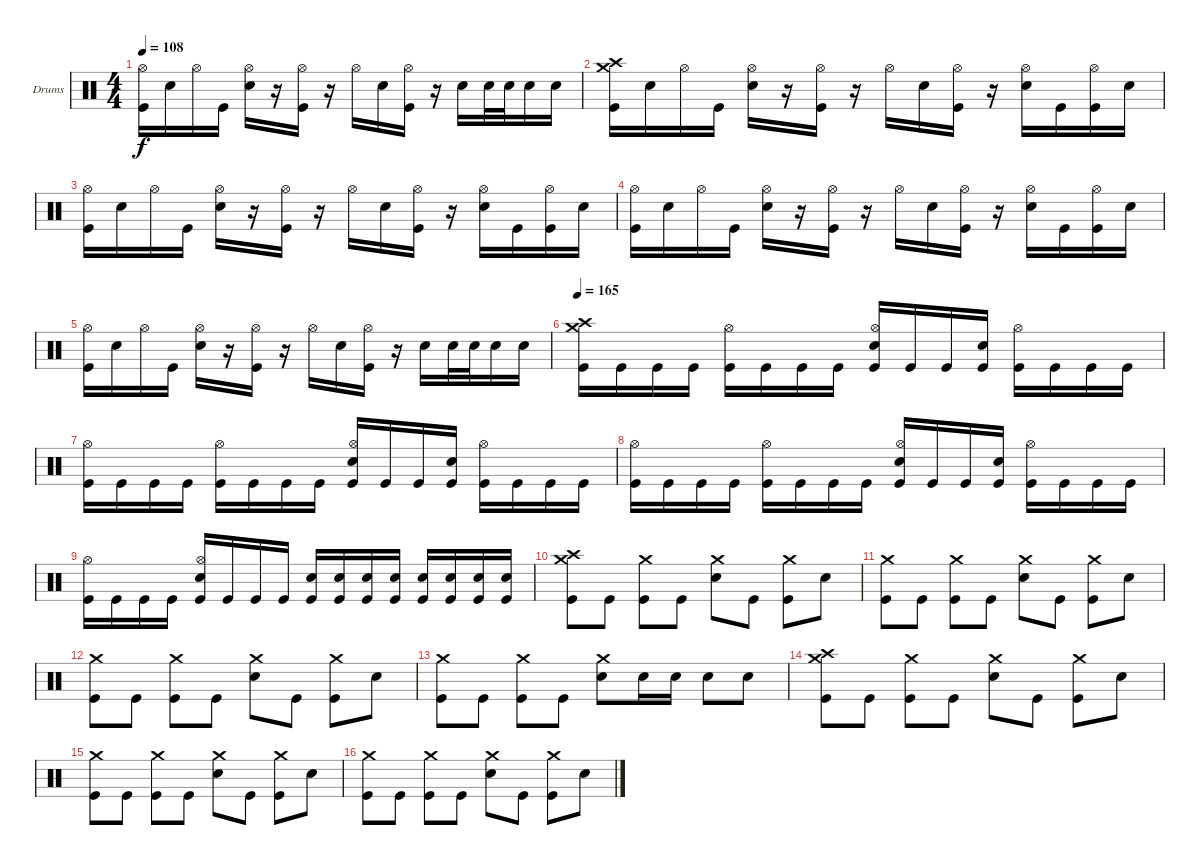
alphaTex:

\defaultSystemsLayout 4
\bracketExtendMode groupsimilarinstruments
\firstSystemTrackNameOrientation horizontal
\otherSystemsTrackNameOrientation horizontal
\track ("Drumkit" "Drums") {instrument percussion}
\staff {score}
\articulation defaults
\ts (4 4)
\tempo 108
\clef neutral
\ks c
("Kick (hit)" "Hi-Hat (open)").16{dy f} "Snare (hit) 2".16 "Hi-Hat (open)".16 "Kick (hit)".16 ("Hi-Hat (open)" "Snare (hit) 2").16 r.16 ("Hi-Hat (open)" "Kick (hit)").16 r.16 "Hi-Hat (open)".16 "Snare (hit) 2".16 ("Hi-Hat (open)" "Kick (hit)").16 r.16 "Snare (hit) 2".16 "Snare (hit) 2".32 "Snare (hit) 2".32 "Snare (hit) 2".16 "Snare (hit) 2".16 |
("Crash medium (hit)" "Crash high (hit)" "Kick (hit)").16 "Snare (hit) 2".16 "Hi-Hat (open)".16 "Kick (hit)".16 ("Hi-Hat (open)" "Snare (hit) 2").16 r.16 ("Hi-Hat (open)" "Kick (hit)").16 r.16 "Hi-Hat (open)".16 "Snare (hit) 2".16 ("Hi-Hat (open)" "Kick (hit)").16 r.16 ("Hi-Hat (open)" "Snare (hit) 2").16 "Kick (hit)".16 ("Hi-Hat (open)" "Kick (hit)").16 "Snare (hit) 2".16 |
("Kick (hit)" "Hi-Hat (open)").16 "Snare (hit) 2".16 "Hi-Hat (open)".16 "Kick (hit)".16 ("Hi-Hat (open)" "Snare (hit) 2").16 r.16 ("Hi-Hat (open)" "Kick (hit)").16 r.16 "Hi-Hat (open)".16 "Snare (hit) 2".16 ("Hi-Hat (open)" "Kick (hit)").16 r.16 ("Hi-Hat (open)" "Snare (hit) 2").16 "Kick (hit)".16 ("Hi-Hat (open)" "Kick (hit)").16 "Snare (hit) 2".16 |
("Kick (hit)" "Hi-Hat (open)").16 "Snare (hit) 2".16 "Hi-Hat (open)".16 "Kick (hit)".16 ("Hi-Hat (open)" "Snare (hit) 2").16 r.16 ("Hi-Hat (open)" "Kick (hit)").16 r.16 "Hi-Hat (open)".16 "Snare (hit) 2".16 ("Hi-Hat (open)" "Kick (hit)").16 r.16 ("Hi-Hat (open)" "Snare (hit) 2").16 "Kick (hit)".16 ("Hi-Hat (open)" "Kick (hit)").16 "Snare (hit) 2".16 |
("Kick (hit)" "Hi-Hat (open)").16 "Snare (hit) 2".16 "Hi-Hat (open)".16 "Kick (hit)".16 ("Hi-Hat (open)" "Snare (hit) 2").16 r.16 ("Hi-Hat (open)" "Kick (hit)").16 r.16 "Hi-Hat (open)".16 "Snare (hit) 2".16 ("Hi-Hat (open)" "Kick (hit)").16 r.16 "Snare (hit) 2".16 "Snare (hit) 2".32 "Snare (hit) 2".32 "Snare (hit) 2".16 "Snare (hit) 2".16 |
\tempo 165
("Kick (hit)" "Crash high (hit)" "Crash medium (hit)").16 "Kick (hit)".16 "Kick (hit)".16 "Kick (hit)".16 ("Kick (hit)" "Hi-Hat (open)").16 "Kick (hit)".16 "Kick (hit)".16 "Kick (hit)".16 ("Kick (hit)" "Hi-Hat (open)" "Snare (hit) 2").16 "Kick (hit)".16 "Kick (hit)".16 ("Kick (hit)" "Snare (hit) 2").16 ("Kick (hit)" "Hi-Hat (open)").16 "Kick (hit)".16 "Kick (hit)".16 "Kick (hit)".16 |
("Kick (hit)" "Hi-Hat (open)").16 "Kick (hit)".16 "Kick (hit)".16 "Kick (hit)".16 ("Kick (hit)" "Hi-Hat (open)").16 "Kick (hit)".16 "Kick (hit)".16 "Kick (hit)".16 ("Kick (hit)" "Hi-Hat (open)" "Snare (hit) 2").16 "Kick (hit)".16 "Kick (hit)".16 ("Kick (hit)" "Snare (hit) 2").16 ("Kick (hit)" "Hi-Hat (open)").16 "Kick (hit)".16 "Kick (hit)".16 "Kick (hit)".16 |
("Kick (hit)" "Hi-Hat (open)").16 "Kick (hit)".16 "Kick (hit)".16 "Kick (hit)".16 ("Kick (hit)" "Hi-Hat (open)").16 "Kick (hit)".16 "Kick (hit)".16 "Kick (hit)".16 ("Kick (hit)" "Hi-Hat (open)" "Snare (hit) 2").16 "Kick (hit)".16 "Kick (hit)".16 ("Kick (hit)" "Snare (hit) 2").16 ("Kick (hit)" "Hi-Hat (open)").16 "Kick (hit)".16 "Kick (hit)".16 "Kick (hit)".16 |
("Kick (hit)" "Hi-Hat (open)").16 "Kick (hit)".16 "Kick (hit)".16 "Kick (hit)".16 ("Kick (hit)" "Hi-Hat (open)" "Snare (hit) 2").16 "Kick (hit)".16 "Kick (hit)".16 "Kick (hit)".16 ("Kick (hit)" "Snare (hit) 2").16 ("Kick (hit)" "Snare (hit) 2").16 ("Kick (hit)" "Snare (hit) 2").16 ("Kick (hit)" "Snare (hit) 2").16 ("Kick (hit)" "Snare (hit) 2").16 ("Kick (hit)" "Snare (hit) 2").16 ("Kick (hit)" "Snare (hit) 2").16 ("Kick (hit)" "Snare (hit) 2").16 |
("Kick (hit)" "Crash high (hit)" "Crash medium (hit)").8 "Kick (hit)".8 ("Kick (hit)" "Crash medium (hit)").8 "Kick (hit)".8 ("Snare (hit) 2" "Crash medium (hit)").8 "Kick (hit)".8 ("Kick (hit)" "Crash medium (hit)").8 "Snare (hit) 2".8 |
("Kick (hit)" "Crash medium (hit)").8 "Kick (hit)".8 ("Kick (hit)" "Crash medium (hit)").8 "Kick (hit)".8 ("Snare (hit) 2" "Crash medium (hit)").8 "Kick (hit)".8 ("Kick (hit)" "Crash medium (hit)").8 "Snare (hit) 2".8 |
("Kick (hit)" "Crash medium (hit)").8 "Kick (hit)".8 ("Kick (hit)" "Crash medium (hit)").8 "Kick (hit)".8 ("Snare (hit) 2" "Crash medium (hit)").8 "Kick (hit)".8 ("Kick (hit)" "Crash medium (hit)").8 "Snare (hit) 2".8 |
("Kick (hit)" "Crash medium (hit)").8 "Kick (hit)".8 ("Kick (hit)" "Crash medium (hit)").8 "Kick (hit)".8 ("Snare (hit) 2" "Crash medium (hit)").8 "Snare (hit) 2".16 "Snare (hit) 2".16 "Snare (hit) 2".8 "Snare (hit) 2".8 |
("Kick (hit)" "Crash high (hit)" "Crash medium (hit)").8 "Kick (hit)".8 ("Kick (hit)" "Crash medium (hit)").8 "Kick (hit)".8 ("Snare (hit) 2" "Crash medium (hit)").8 "Kick (hit)".8 ("Kick (hit)" "Crash medium (hit)").8 "Snare (hit) 2".8 |
("Kick (hit)" "Crash medium (hit)").8 "Kick (hit)".8 ("Kick (hit)" "Crash medium (hit)").8 "Kick (hit)".8 ("Snare (hit) 2" "Crash medium (hit)").8 "Kick (hit)".8 ("Kick (hit)" "Crash medium (hit)").8 "Snare (hit) 2".8 |
("Kick (hit)" "Crash medium (hit)").8 "Kick (hit)".8 ("Kick (hit)" "Crash medium (hit)").8 "Kick (hit)".8 ("Snare (hit) 2" "Crash medium (hit)").8 "Kick (hit)".8 ("Kick (hit)" "Crash medium (hit)").8 "Snare (hit) 2".8
